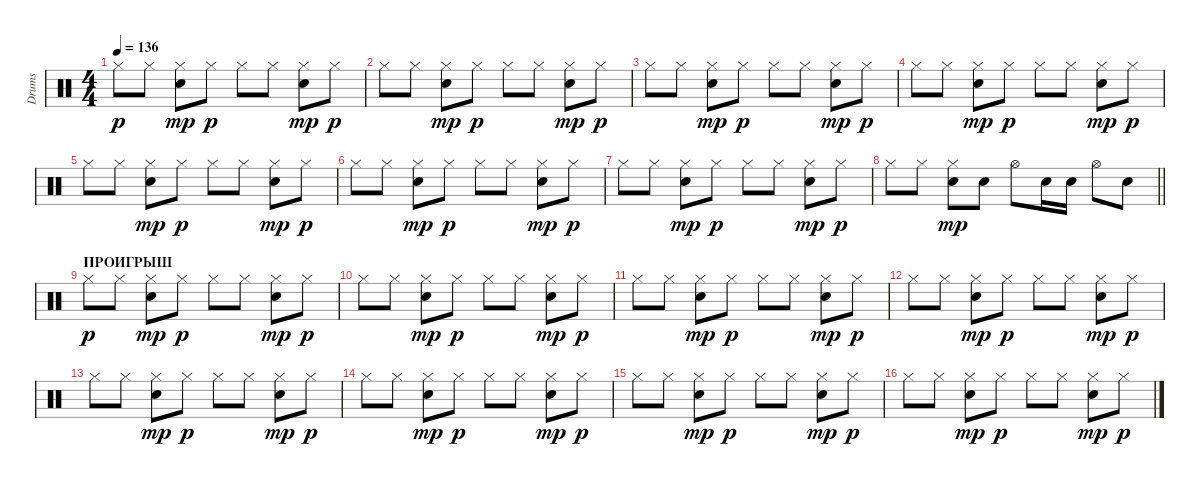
\track ("Drums" "Drums") {instrument percussion}
\staff {score}
\articulation defaults
\ts (4 4)
\tempo 136
\clef neutral
\ks c "Hi-Hat (closed)".8{dy p} "Hi-Hat (closed)".8
("Hi-Hat (closed)" "Electric Snare (hit)").8{dy mp} "Hi-Hat (closed)".8{dy p} "Hi-Hat (closed)".8 "Hi-Hat (closed)".8 ("Hi-Hat (closed)" "Electric Snare (hit)").8{dy mp} "Hi-Hat (closed)".8{dy p} |
"Hi-Hat (closed)".8 "Hi-Hat (closed)".8 ("Hi-Hat (closed)" "Electric Snare (hit)").8{dy mp} "Hi-Hat (closed)".8{dy p} "Hi-Hat (closed)".8 "Hi-Hat (closed)".8 ("Hi-Hat (closed)" "Electric Snare (hit)").8{dy mp} "Hi-Hat (closed)".8{dy p} |
"Hi-Hat (closed)".8 "Hi-Hat (closed)".8 ("Hi-Hat (closed)" "Electric Snare (hit)").8{dy mp} "Hi-Hat (closed)".8{dy p} "Hi-Hat (closed)".8 "Hi-Hat (closed)".8 ("Hi-Hat (closed)" "Electric Snare (hit)").8{dy mp} "Hi-Hat (closed)".8{dy p} |
"Hi-Hat (closed)".8 "Hi-Hat (closed)".8 ("Hi-Hat (closed)" "Electric Snare (hit)").8{dy mp} "Hi-Hat (closed)".8{dy p} "Hi-Hat (closed)".8 "Hi-Hat (closed)".8 ("Hi-Hat (closed)" "Electric Snare (hit)").8{dy mp} "Hi-Hat (closed)".8{dy p} |
"Hi-Hat (closed)".8 "Hi-Hat (closed)".8 ("Hi-Hat (closed)" "Electric Snare (hit)").8{dy mp} "Hi-Hat (closed)".8{dy p} "Hi-Hat (closed)".8 "Hi-Hat (closed)".8 ("Hi-Hat (closed)" "Electric Snare (hit)").8{dy mp} "Hi-Hat (closed)".8{dy p} |
"Hi-Hat (closed)".8 "Hi-Hat (closed)".8 ("Hi-Hat (closed)" "Electric Snare (hit)").8{dy mp} "Hi-Hat (closed)".8{dy p} "Hi-Hat (closed)".8 "Hi-Hat (closed)".8 ("Hi-Hat (closed)" "Electric Snare (hit)").8{dy mp} "Hi-Hat (closed)".8{dy p} |
"Hi-Hat (closed)".8 "Hi-Hat (closed)".8 ("Hi-Hat (closed)" "Electric Snare (hit)").8{dy mp} "Hi-Hat (closed)".8{dy p} "Hi-Hat (closed)".8 "Hi-Hat (closed)".8 ("Hi-Hat (closed)" "Electric Snare (hit)").8{dy mp} "Hi-Hat (closed)".8{dy p} |
\barLineRight lightlight "Hi-Hat (closed)".8 "Hi-Hat (closed)".8
("Hi-Hat (closed)" "Electric Snare (hit)").8{dy mp} "Electric Snare (hit)".8 "Hi-Hat (open)".8 "Electric Snare (hit)".16 "Electric Snare (hit)".16 "Hi-Hat (open)".8 "Electric Snare (hit)".8 |
\section ("" "ПРОИГРЫШ")
"Hi-Hat (closed)".8{dy p} "Hi-Hat (closed)".8 ("Hi-Hat (closed)" "Electric Snare (hit)").8{dy mp} "Hi-Hat (closed)".8{dy p} "Hi-Hat (closed)".8 "Hi-Hat (closed)".8 ("Hi-Hat (closed)" "Electric Snare (hit)").8{dy mp} "Hi-Hat (closed)".8{dy p} |
"Hi-Hat (closed)".8 "Hi-Hat (closed)".8 ("Hi-Hat (closed)" "Electric Snare (hit)").8{dy mp} "Hi-Hat (closed)".8{dy p} "Hi-Hat (closed)".8 "Hi-Hat (closed)".8 ("Hi-Hat (closed)" "Electric Snare (hit)").8{dy mp} "Hi-Hat (closed)".8{dy p} |
"Hi-Hat (closed)".8 "Hi-Hat (closed)".8 ("Hi-Hat (closed)" "Electric Snare (hit)").8{dy mp} "Hi-Hat (closed)".8{dy p} "Hi-Hat (closed)".8 "Hi-Hat (closed)".8 ("Hi-Hat (closed)" "Electric Snare (hit)").8{dy mp} "Hi-Hat (closed)".8{dy p} |
"Hi-Hat (closed)".8 "Hi-Hat (closed)".8 ("Hi-Hat (closed)" "Electric Snare (hit)").8{dy mp} "Hi-Hat (closed)".8{dy p} "Hi-Hat (closed)".8 "Hi-Hat (closed)".8 ("Hi-Hat (closed)" "Electric Snare (hit)").8{dy mp} "Hi-Hat (closed)".8{dy p} |
"Hi-Hat (closed)".8 "Hi-Hat (closed)".8 ("Hi-Hat (closed)" "Electric Snare (hit)").8{dy mp} "Hi-Hat (closed)".8{dy p} "Hi-Hat (closed)".8 "Hi-Hat (closed)".8 ("Hi-Hat (closed)" "Electric Snare (hit)").8{dy mp} "Hi-Hat (closed)".8{dy p} |
"Hi-Hat (closed)".8 "Hi-Hat (closed)".8 ("Hi-Hat (closed)" "Electric Snare (hit)").8{dy mp} "Hi-Hat (closed)".8{dy p} "Hi-Hat (closed)".8 "Hi-Hat (closed)".8 ("Hi-Hat (closed)" "Electric Snare (hit)").8{dy mp} "Hi-Hat (closed)".8{dy p} |
"Hi-Hat (closed)".8 "Hi-Hat (closed)".8 ("Hi-Hat (closed)" "Electric Snare (hit)").8{dy mp} "Hi-Hat (closed)".8{dy p} "Hi-Hat (closed)".8 "Hi-Hat (closed)".8 ("Hi-Hat (closed)" "Electric Snare (hit)").8{dy mp} "Hi-Hat (closed)".8{dy p} |
"Hi-Hat (closed)".8 "Hi-Hat (closed)".8 ("Hi-Hat (closed)" "Electric Snare (hit)").8{dy mp} "Hi-Hat (closed)".8{dy p} "Hi-Hat (closed)".8 "Hi-Hat (closed)".8 ("Hi-Hat (closed)" "Electric Snare (hit)").8{dy mp} "Hi-Hat (closed)".8{dy p}
